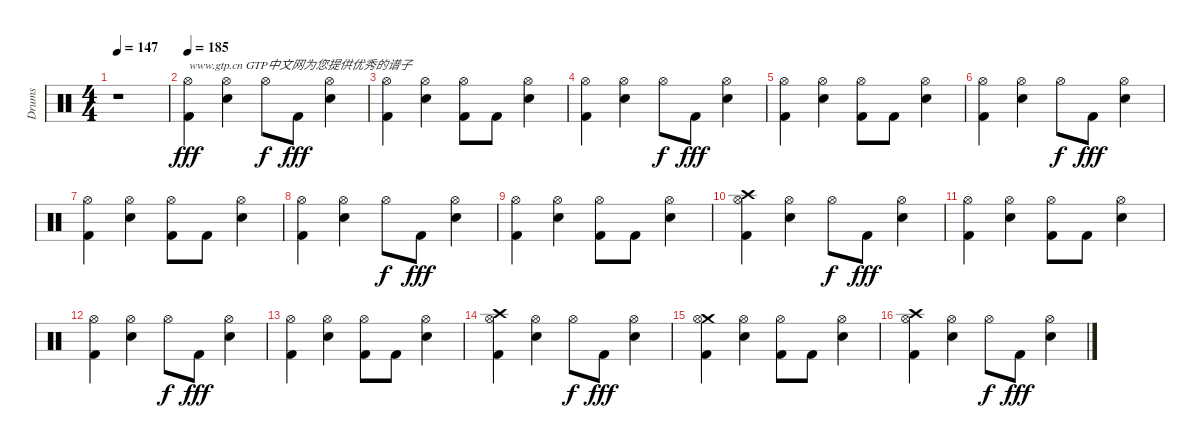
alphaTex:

\track ("Drums" "Drums") {instrument percussion}
\staff {score}
\articulation defaults
\ts (4 4)
\tempo 147
\clef neutral
\ks c
r.1{dy fff} |
\tempo 185
("Kick (hit) 2" "Hi-Hat (open)").4{txt "www.gtp.cn GTP中文网为您提供优秀的谱子"} ("Snare (hit) 2" "Hi-Hat (open)").4 "Hi-Hat (open)".8{dy f} "Kick (hit) 2".8{dy fff} ("Snare (hit) 2" "Hi-Hat (open)").4 |
("Kick (hit) 2" "Hi-Hat (open)").4 ("Snare (hit) 2" "Hi-Hat (open)").4 ("Kick (hit) 2" "Hi-Hat (open)").8 "Kick (hit) 2".8 ("Snare (hit) 2" "Hi-Hat (open)").4 |
("Kick (hit) 2" "Hi-Hat (open)").4 ("Snare (hit) 2" "Hi-Hat (open)").4 "Hi-Hat (open)".8{dy f} "Kick (hit) 2".8{dy fff} ("Snare (hit) 2" "Hi-Hat (open)").4 |
("Kick (hit) 2" "Hi-Hat (open)").4 ("Snare (hit) 2" "Hi-Hat (open)").4 ("Kick (hit) 2" "Hi-Hat (open)").8 "Kick (hit) 2".8 ("Snare (hit) 2" "Hi-Hat (open)").4 |
("Kick (hit) 2" "Hi-Hat (open)").4 ("Snare (hit) 2" "Hi-Hat (open)").4 "Hi-Hat (open)".8{dy f} "Kick (hit) 2".8{dy fff} ("Snare (hit) 2" "Hi-Hat (open)").4 |
("Kick (hit) 2" "Hi-Hat (open)").4 ("Snare (hit) 2" "Hi-Hat (open)").4 ("Kick (hit) 2" "Hi-Hat (open)").8 "Kick (hit) 2".8 ("Snare (hit) 2" "Hi-Hat (open)").4 |
("Kick (hit) 2" "Hi-Hat (open)").4 ("Snare (hit) 2" "Hi-Hat (open)").4 "Hi-Hat (open)".8{dy f} "Kick (hit) 2".8{dy fff} ("Snare (hit) 2" "Hi-Hat (open)").4 |
("Kick (hit) 2" "Hi-Hat (open)").4 ("Snare (hit) 2" "Hi-Hat (open)").4 ("Kick (hit) 2" "Hi-Hat (open)").8 "Kick (hit) 2".8 ("Snare (hit) 2" "Hi-Hat (open)").4 |
("Kick (hit) 2" "Crash high (hit)" "Hi-Hat (open)").4 ("Snare (hit) 2" "Hi-Hat (open)").4 "Hi-Hat (open)".8{dy f} "Kick (hit) 2".8{dy fff} ("Snare (hit) 2" "Hi-Hat (open)").4 |
("Kick (hit) 2" "Hi-Hat (open)").4 ("Snare (hit) 2" "Hi-Hat (open)").4 ("Kick (hit) 2" "Hi-Hat (open)").8 "Kick (hit) 2".8 ("Snare (hit) 2" "Hi-Hat (open)").4 |
("Kick (hit) 2" "Hi-Hat (open)").4 ("Snare (hit) 2" "Hi-Hat (open)").4 "Hi-Hat (open)".8{dy f} "Kick (hit) 2".8{dy fff} ("Snare (hit) 2" "Hi-Hat (open)").4 |
("Kick (hit) 2" "Hi-Hat (open)").4 ("Snare (hit) 2" "Hi-Hat (open)").4 ("Kick (hit) 2" "Hi-Hat (open)").8 "Kick (hit) 2".8 ("Snare (hit) 2" "Hi-Hat (open)").4 |
("Kick (hit) 2" "Crash high (hit)" "Hi-Hat (open)").4 ("Snare (hit) 2" "Hi-Hat (open)").4 "Hi-Hat (open)".8{dy f} "Kick (hit) 2".8{dy fff} ("Snare (hit) 2" "Hi-Hat (open)").4 |
("Kick (hit) 2" "Crash medium (hit)" "Hi-Hat (open)").4 ("Snare (hit) 2" "Hi-Hat (open)").4 ("Kick (hit) 2" "Hi-Hat (open)").8 "Kick (hit) 2".8 ("Snare (hit) 2" "Hi-Hat (open)").4 |
("Kick (hit) 2" "Crash high (hit)" "Hi-Hat (open)").4 ("Snare (hit) 2" "Hi-Hat (open)").4 "Hi-Hat (open)".8{dy f} "Kick (hit) 2".8{dy fff} ("Snare (hit) 2" "Hi-Hat (open)").4
